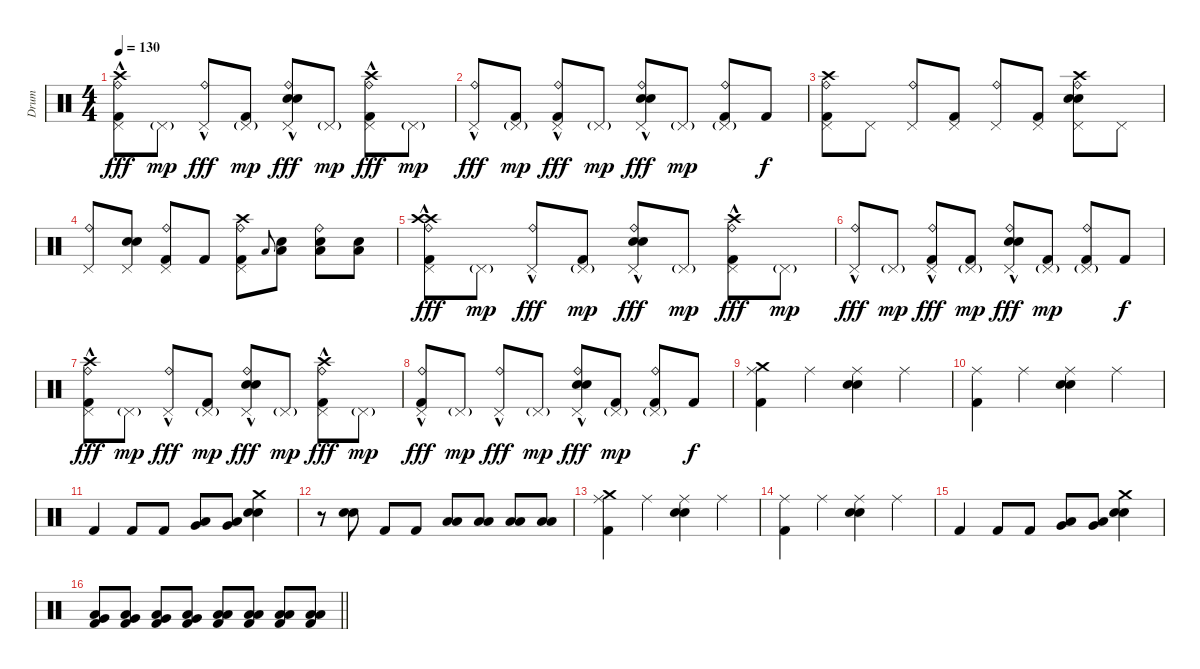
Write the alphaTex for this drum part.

\track ("Drum" "Drum") {instrument percussion}
\staff {score}
\articulation defaults
\ts (4 4)
\tempo 130
\clef neutral
\ks c
("Crash high (hit)" "Ride (bell)" "Kick (hit) 2" "Pedal Hi-Hat (hit)"{hac}).8{dy fff} "Pedal Hi-Hat (hit)"{g}.8{dy mp} ("Ride (bell)" "Pedal Hi-Hat (hit)"{hac}).8{dy fff} ("Kick (hit) 2" "Pedal Hi-Hat (hit)"{g}).8{dy mp} ("Electric Snare (hit)" "Electric Snare (hit)" "Ride (bell)" "Pedal Hi-Hat (hit)"{hac}).8{dy fff} "Pedal Hi-Hat (hit)"{g}.8{dy mp} ("Crash high (hit)" "Ride (bell)" "Kick (hit) 2" "Pedal Hi-Hat (hit)"{hac}).8{dy fff} "Pedal Hi-Hat (hit)"{g}.8{dy mp} |
("Ride (bell)" "Pedal Hi-Hat (hit)"{hac}).8{dy fff} ("Kick (hit) 2" "Pedal Hi-Hat (hit)"{g}).8{dy mp} ("Ride (bell)" "Kick (hit) 2" "Pedal Hi-Hat (hit)"{hac}).8{dy fff} "Pedal Hi-Hat (hit)"{g}.8{dy mp} ("Electric Snare (hit)" "Electric Snare (hit)" "Ride (bell)" "Pedal Hi-Hat (hit)"{hac}).8{dy fff} "Pedal Hi-Hat (hit)"{g}.8{dy mp} ("Ride (bell)" "Kick (hit) 2" "Pedal Hi-Hat (hit)"{g}).8 "Kick (hit) 2".8{dy f} |
("Crash high (hit)" "Ride (bell)" "Kick (hit) 2" "Pedal Hi-Hat (hit)").8 "Pedal Hi-Hat (hit)".8 ("Ride (bell)" "Pedal Hi-Hat (hit)").8 ("Kick (hit) 2" "Pedal Hi-Hat (hit)").8 ("Ride (bell)" "Pedal Hi-Hat (hit)").8 ("Kick (hit) 2" "Pedal Hi-Hat (hit)").8 ("Crash high (hit)" "Electric Snare (hit)" "Electric Snare (hit)" "Ride (bell)" "Pedal Hi-Hat (hit)").8 "Pedal Hi-Hat (hit)".8 |
("Ride (bell)" "Pedal Hi-Hat (hit)").8 ("Electric Snare (hit)" "Electric Snare (hit)" "Pedal Hi-Hat (hit)").8 ("Ride (bell)" "Kick (hit) 2" "Pedal Hi-Hat (hit)").8 "Kick (hit) 2".8 ("Crash high (hit)" "Ride (bell)" "Kick (hit) 2" "Pedal Hi-Hat (hit)").8 "Low Tom (hit)".8{gr onbeat} ("Electric Snare (hit)" "Low Tom (hit)").8 ("Electric Snare (hit)" "Low Tom (hit)" "Ride (bell)").8 ("Electric Snare (hit)" "Low Tom (hit)").8 |
("Crash high (hit)" "Crash high (hit)" "Ride (bell)" "Kick (hit) 2" "Pedal Hi-Hat (hit)"{hac}).8{dy fff} "Pedal Hi-Hat (hit)"{g}.8{dy mp} ("Ride (bell)" "Pedal Hi-Hat (hit)"{hac}).8{dy fff} ("Kick (hit) 2" "Pedal Hi-Hat (hit)"{g}).8{dy mp} ("Electric Snare (hit)" "Electric Snare (hit)" "Ride (bell)" "Pedal Hi-Hat (hit)"{hac}).8{dy fff} "Pedal Hi-Hat (hit)"{g}.8{dy mp} ("Crash high (hit)" "Ride (bell)" "Kick (hit) 2" "Pedal Hi-Hat (hit)"{hac}).8{dy fff} "Pedal Hi-Hat (hit)"{g}.8{dy mp} |
("Ride (bell)" "Pedal Hi-Hat (hit)"{hac}).8{dy fff} "Pedal Hi-Hat (hit)"{g}.8{dy mp} ("Ride (bell)" "Kick (hit) 2" "Pedal Hi-Hat (hit)"{hac}).8{dy fff} ("Kick (hit) 2" "Pedal Hi-Hat (hit)"{g}).8{dy mp} ("Electric Snare (hit)" "Electric Snare (hit)" "Ride (bell)" "Pedal Hi-Hat (hit)"{hac}).8{dy fff} ("Kick (hit) 2" "Pedal Hi-Hat (hit)"{g}).8{dy mp} ("Ride (bell)" "Kick (hit) 2" "Pedal Hi-Hat (hit)"{g}).8 "Kick (hit) 2".8{dy f} |
("Crash high (hit)" "Ride (bell)" "Kick (hit) 2" "Pedal Hi-Hat (hit)"{hac}).8{dy fff} "Pedal Hi-Hat (hit)"{g}.8{dy mp} ("Ride (bell)" "Pedal Hi-Hat (hit)"{hac}).8{dy fff} ("Kick (hit) 2" "Pedal Hi-Hat (hit)"{g}).8{dy mp} ("Electric Snare (hit)" "Electric Snare (hit)" "Ride (bell)" "Pedal Hi-Hat (hit)"{hac}).8{dy fff} "Pedal Hi-Hat (hit)"{g}.8{dy mp} ("Crash high (hit)" "Ride (bell)" "Kick (hit) 2" "Pedal Hi-Hat (hit)"{hac}).8{dy fff} "Pedal Hi-Hat (hit)"{g}.8{dy mp} |
("Ride (bell)" "Kick (hit) 2" "Pedal Hi-Hat (hit)"{hac}).8{dy fff} "Pedal Hi-Hat (hit)"{g}.8{dy mp} ("Ride (bell)" "Pedal Hi-Hat (hit)"{hac}).8{dy fff} "Pedal Hi-Hat (hit)"{g}.8{dy mp} ("Electric Snare (hit)" "Electric Snare (hit)" "Ride (bell)" "Pedal Hi-Hat (hit)"{hac}).8{dy fff} ("Kick (hit) 2" "Pedal Hi-Hat (hit)"{g}).8{dy mp} ("Ride (bell)" "Kick (hit) 2" "Pedal Hi-Hat (hit)"{g}).8 "Kick (hit) 2".8{dy f} |
("Crash medium (hit)" "Kick (hit) 2" "Ride (middle)").4 "Ride (middle)".4 ("Electric Snare (hit)" "Electric Snare (hit)" "Ride (middle)").4 "Ride (middle)".4 |
("Kick (hit) 2" "Ride (middle)").4 "Ride (middle)".4 ("Electric Snare (hit)" "Electric Snare (hit)" "Ride (middle)").4 "Ride (middle)".4 |
"Kick (hit) 2".4 "Kick (hit) 2".8 "Kick (hit) 2".8 ("Low Floor Tom (hit)" "Very Low Tom (hit)").8 ("Low Floor Tom (hit)" "Very Low Tom (hit)").8 ("Crash medium (hit)" "Electric Snare (hit)" "Electric Snare (hit)").4 |
r.8 ("Electric Snare (hit)" "Electric Snare (hit)").8 "Kick (hit) 2".8 "Kick (hit) 2".8 ("Low Floor Tom (hit)" "Low Tom (hit)").8 ("Low Floor Tom (hit)" "Low Tom (hit)").8 ("Low Floor Tom (hit)" "Low Tom (hit)").8 ("Low Floor Tom (hit)" "Low Tom (hit)").8 |
("Crash medium (hit)" "Kick (hit) 2" "Ride (middle)").4 "Ride (middle)".4 ("Electric Snare (hit)" "Electric Snare (hit)" "Ride (middle)").4 "Ride (middle)".4 |
("Kick (hit) 2" "Ride (middle)").4 "Ride (middle)".4 ("Electric Snare (hit)" "Electric Snare (hit)" "Ride (middle)").4 "Ride (middle)".4 |
"Kick (hit) 2".4 "Kick (hit) 2".8 "Kick (hit) 2".8 ("Low Floor Tom (hit)" "Very Low Tom (hit)").8 ("Low Floor Tom (hit)" "Very Low Tom (hit)").8 ("Crash medium (hit)" "Electric Snare (hit)" "Electric Snare (hit)").4 |
\barLineRight lightlight
("Low Floor Tom (hit)" "Very Low Tom (hit)" "Kick (hit) 2").8 ("Low Floor Tom (hit)" "Very Low Tom (hit)" "Kick (hit) 2").8 ("Low Floor Tom (hit)" "Very Low Tom (hit)" "Kick (hit) 2").8 ("Low Floor Tom (hit)" "Very Low Tom (hit)" "Kick (hit) 2").8 ("Low Floor Tom (hit)" "Low Tom (hit)" "Kick (hit) 2").8 ("Low Floor Tom (hit)" "Low Tom (hit)" "Kick (hit) 2").8 ("Low Floor Tom (hit)" "Low Tom (hit)" "Kick (hit) 2").8 ("Low Floor Tom (hit)" "Low Tom (hit)" "Kick (hit) 2").8
